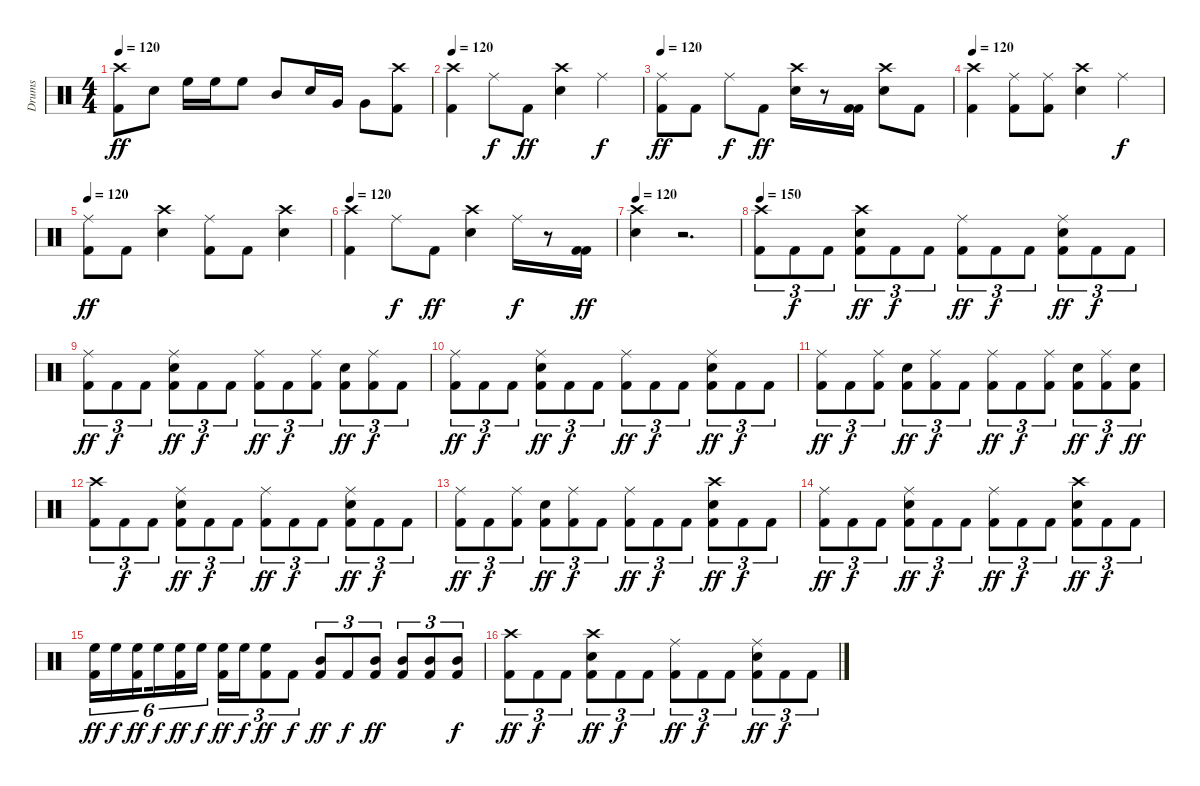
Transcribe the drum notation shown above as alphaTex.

\track ("Drums" "Drums") {instrument percussion}
\staff {score}
\articulation defaults
\ts (4 4)
\tempo 120
\clef neutral
\ks c
("Crash high (hit)" "Kick (hit) 2").8{dy ff} "Snare (hit) 2".8 "High Floor Tom (hit)".16 "High Floor Tom (hit)".16 "High Floor Tom (hit)".8 "Mid Tom (hit)".8 "Snare (hit) 2".16 "Very Low Tom (hit)".16 "Very Low Tom (hit)".8 ("Crash high (hit)" "Kick (hit) 2").8 |
\tempo 120
("Crash high (hit)" "Kick (hit) 2").4 "Ride (middle)".8{dy f} "Kick (hit) 2".8{dy ff} ("Crash high (hit)" "Snare (hit) 2").4 "Ride (middle)".4{dy f} |
\tempo 120
("Ride (middle)" "Kick (hit) 2").8{dy ff} "Kick (hit) 2".8 "Ride (middle)".8{dy f} "Kick (hit) 2".8{dy ff} ("Crash high (hit)" "Snare (hit) 2").16 r.8 ("Kick (hit) 2" "Kick (hit) 2").16 ("Crash high (hit)" "Snare (hit) 2").8 "Kick (hit) 2".8 |
\tempo 120
("Crash high (hit)" "Kick (hit) 2").4 ("Ride (middle)" "Kick (hit) 2").8 ("Ride (middle)" "Kick (hit) 2").8 ("Crash high (hit)" "Snare (hit) 2").4 "Ride (middle)".4{dy f} |
\tempo 120
("Ride (middle)" "Kick (hit) 2").8{dy ff} "Kick (hit) 2".8 ("Snare (hit) 2" "Crash high (hit)").4 ("Ride (middle)" "Kick (hit) 2").8 "Kick (hit) 2".8 ("Snare (hit) 2" "Crash high (hit)").4 |
\tempo 120
("Crash high (hit)" "Kick (hit) 2").4 "Ride (middle)".8{dy f} "Kick (hit) 2".8{dy ff} ("Crash high (hit)" "Snare (hit) 2").4 "Ride (middle)".16{dy f} r.8 ("Kick (hit) 2" "Kick (hit) 2").16{dy ff} |
\tempo 120
("Snare (hit) 2" "Crash high (hit)").4 r.2{d} |
\tempo 150
("Crash high (hit)" "Kick (hit) 2").8{tu (3 2)} "Kick (hit) 2".8{tu (3 2) dy f} "Kick (hit) 2".8{tu (3 2)} ("Crash high (hit)" "Snare (hit) 2" "Kick (hit) 2").8{tu (3 2) dy ff} "Kick (hit) 2".8{tu (3 2) dy f} "Kick (hit) 2".8{tu (3 2)} ("Ride (middle)" "Kick (hit) 2").8{tu (3 2) dy ff} "Kick (hit) 2".8{tu (3 2) dy f} "Kick (hit) 2".8{tu (3 2)} ("Kick (hit) 2" "Ride (middle)" "Snare (hit) 2").8{tu (3 2) dy ff} "Kick (hit) 2".8{tu (3 2) dy f} "Kick (hit) 2".8{tu (3 2)} |
("Ride (middle)" "Kick (hit) 2").8{tu (3 2) dy ff} "Kick (hit) 2".8{tu (3 2) dy f} "Kick (hit) 2".8{tu (3 2)} ("Kick (hit) 2" "Ride (middle)" "Snare (hit) 2").8{tu (3 2) dy ff} "Kick (hit) 2".8{tu (3 2) dy f} "Kick (hit) 2".8{tu (3 2)} ("Ride (middle)" "Kick (hit) 2").8{tu (3 2) dy ff} "Kick (hit) 2".8{tu (3 2) dy f} ("Ride (middle)" "Kick (hit) 2").8{tu (3 2)} ("Snare (hit) 2" "Kick (hit) 2").8{tu (3 2) dy ff} ("Ride (middle)" "Kick (hit) 2").8{tu (3 2) dy f} "Kick (hit) 2".8{tu (3 2)} |
("Ride (middle)" "Kick (hit) 2").8{tu (3 2) dy ff} "Kick (hit) 2".8{tu (3 2) dy f} "Kick (hit) 2".8{tu (3 2)} ("Kick (hit) 2" "Ride (middle)" "Snare (hit) 2").8{tu (3 2) dy ff} "Kick (hit) 2".8{tu (3 2) dy f} "Kick (hit) 2".8{tu (3 2)} ("Ride (middle)" "Kick (hit) 2").8{tu (3 2) dy ff} "Kick (hit) 2".8{tu (3 2) dy f} "Kick (hit) 2".8{tu (3 2)} ("Kick (hit) 2" "Ride (middle)" "Snare (hit) 2").8{tu (3 2) dy ff} "Kick (hit) 2".8{tu (3 2) dy f} "Kick (hit) 2".8{tu (3 2)} |
("Ride (middle)" "Kick (hit) 2").8{tu (3 2) dy ff} "Kick (hit) 2".8{tu (3 2) dy f} ("Ride (middle)" "Kick (hit) 2").8{tu (3 2)} ("Snare (hit) 2" "Kick (hit) 2").8{tu (3 2) dy ff} ("Ride (middle)" "Kick (hit) 2").8{tu (3 2) dy f} "Kick (hit) 2".8{tu (3 2)} ("Ride (middle)" "Kick (hit) 2").8{tu (3 2) dy ff} "Kick (hit) 2".8{tu (3 2) dy f} ("Ride (middle)" "Kick (hit) 2").8{tu (3 2)} ("Snare (hit) 2" "Kick (hit) 2").8{tu (3 2) dy ff} ("Ride (middle)" "Kick (hit) 2").8{tu (3 2) dy f} ("Snare (hit) 2" "Kick (hit) 2").8{tu (3 2) dy ff} |
("Crash high (hit)" "Kick (hit) 2").8{tu (3 2)} "Kick (hit) 2".8{tu (3 2) dy f} "Kick (hit) 2".8{tu (3 2)} ("Kick (hit) 2" "Ride (middle)" "Snare (hit) 2").8{tu (3 2) dy ff} "Kick (hit) 2".8{tu (3 2) dy f} "Kick (hit) 2".8{tu (3 2)} ("Ride (middle)" "Kick (hit) 2").8{tu (3 2) dy ff} "Kick (hit) 2".8{tu (3 2) dy f} "Kick (hit) 2".8{tu (3 2)} ("Kick (hit) 2" "Ride (middle)" "Snare (hit) 2").8{tu (3 2) dy ff} "Kick (hit) 2".8{tu (3 2) dy f} "Kick (hit) 2".8{tu (3 2)} |
("Ride (middle)" "Kick (hit) 2").8{tu (3 2) dy ff} "Kick (hit) 2".8{tu (3 2) dy f} ("Ride (middle)" "Kick (hit) 2").8{tu (3 2)} ("Snare (hit) 2" "Kick (hit) 2").8{tu (3 2) dy ff} ("Ride (middle)" "Kick (hit) 2").8{tu (3 2) dy f} "Kick (hit) 2".8{tu (3 2)} ("Ride (middle)" "Kick (hit) 2").8{tu (3 2) dy ff} "Kick (hit) 2".8{tu (3 2) dy f} "Kick (hit) 2".8{tu (3 2)} ("Snare (hit) 2" "Crash high (hit)" "Kick (hit) 2").8{tu (3 2) dy ff} "Kick (hit) 2".8{tu (3 2) dy f} "Kick (hit) 2".8{tu (3 2)} |
("Ride (middle)" "Kick (hit) 2").8{tu (3 2) dy ff} "Kick (hit) 2".8{tu (3 2) dy f} "Kick (hit) 2".8{tu (3 2)} ("Kick (hit) 2" "Ride (middle)" "Snare (hit) 2").8{tu (3 2) dy ff} "Kick (hit) 2".8{tu (3 2) dy f} "Kick (hit) 2".8{tu (3 2)} ("Ride (middle)" "Kick (hit) 2").8{tu (3 2) dy ff} "Kick (hit) 2".8{tu (3 2) dy f} "Kick (hit) 2".8{tu (3 2)} ("Snare (hit) 2" "Crash high (hit)" "Kick (hit) 2").8{tu (3 2) dy ff} "Kick (hit) 2".8{tu (3 2) dy f} "Kick (hit) 2".8{tu (3 2)} |
("High Floor Tom (hit)" "Kick (hit) 2").16{tu (6 4) dy ff} "High Floor Tom (hit)".16{tu (6 4) dy f} ("Kick (hit) 2" "High Floor Tom (hit)").16{tu (6 4) dy ff beam splitsecondary} "High Floor Tom (hit)".16{tu (6 4) dy f} ("Kick (hit) 2" "High Floor Tom (hit)").16{tu (6 4) dy ff} "High Floor Tom (hit)".16{tu (6 4) dy f} ("High Floor Tom (hit)" "Kick (hit) 2").16{tu (3 2) dy ff} "High Floor Tom (hit)".16{tu (3 2) dy f} ("High Floor Tom (hit)" "Kick (hit) 2").8{tu (3 2) dy ff} "Kick (hit) 2".8{tu (3 2) dy f} ("Mid Tom (hit)" "Kick (hit) 2").8{tu (3 2) dy ff} "Kick (hit) 2".8{tu (3 2) dy f} ("Mid Tom (hit)" "Kick (hit) 2").8{tu (3 2) dy ff} ("Mid Tom (hit)" "Kick (hit) 2").8{tu (3 2)} ("Mid Tom (hit)" "Kick (hit) 2").8{tu (3 2)} ("Mid Tom (hit)" "Kick (hit) 2").8{tu (3 2) dy f} |
("Crash high (hit)" "Kick (hit) 2").8{tu (3 2) dy ff} "Kick (hit) 2".8{tu (3 2) dy f} "Kick (hit) 2".8{tu (3 2)} ("Crash high (hit)" "Snare (hit) 2" "Kick (hit) 2").8{tu (3 2) dy ff} "Kick (hit) 2".8{tu (3 2) dy f} "Kick (hit) 2".8{tu (3 2)} ("Ride (middle)" "Kick (hit) 2").8{tu (3 2) dy ff} "Kick (hit) 2".8{tu (3 2) dy f} "Kick (hit) 2".8{tu (3 2)} ("Kick (hit) 2" "Ride (middle)" "Snare (hit) 2").8{tu (3 2) dy ff} "Kick (hit) 2".8{tu (3 2) dy f} "Kick (hit) 2".8{tu (3 2)}
